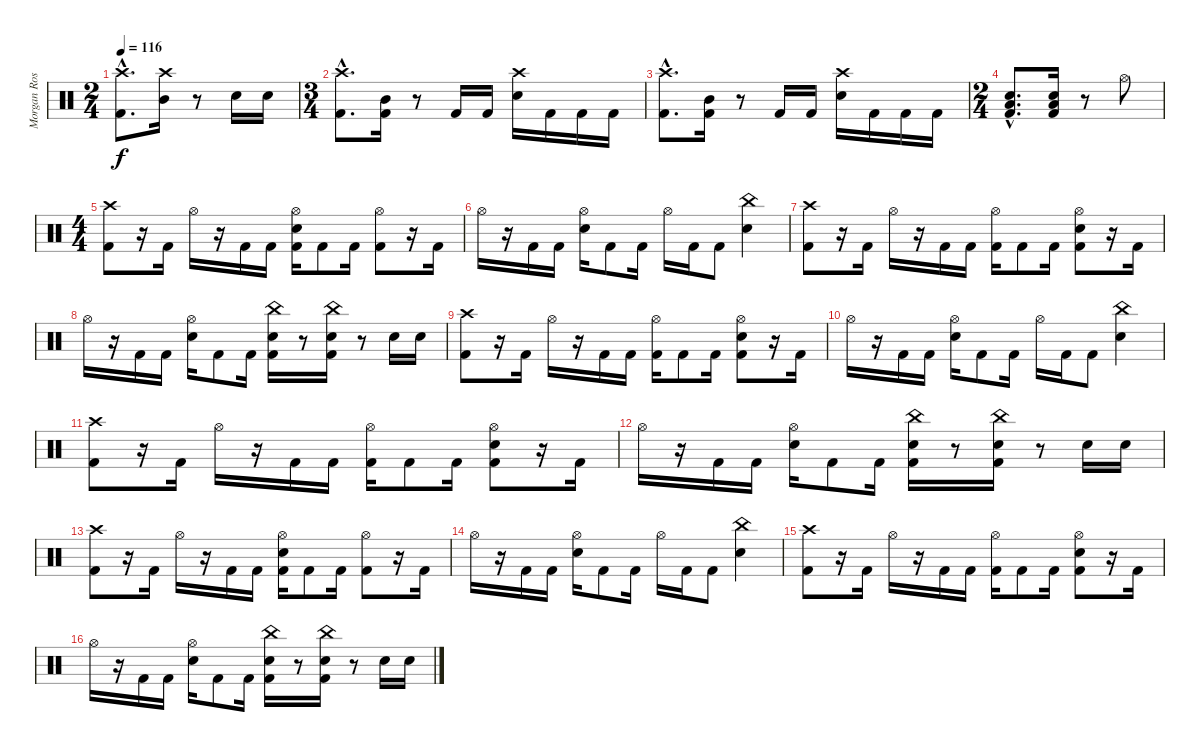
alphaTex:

\track ("Morgan Rose - Drums" "Morgan Ros") {instrument percussion}
\staff {score}
\articulation defaults
\ts (2 4)
\tempo 116
\clef neutral
\ks c
("Crash high (hit)"{hac} "Kick (hit) 2"{hac}).8{d dy f} ("Crash high (hit)" "Mid Tom (hit)").16 r.8 "Electric Snare (hit)".16 "Electric Snare (hit)".16 |
\ts (3 4)
("Crash high (hit)"{hac} "Kick (hit) 2"{hac}).8{d} ("Mid Tom (hit)" "Kick (hit) 2").16 r.8 "Kick (hit) 2".16 "Kick (hit) 2".16 ("Crash high (hit)" "Electric Snare (hit)").16 "Kick (hit) 2".16 "Kick (hit) 2".16 "Kick (hit) 2".16 |
("Crash high (hit)"{hac} "Kick (hit) 2"{hac}).8{d} ("Mid Tom (hit)" "Kick (hit) 2").16 r.8 "Kick (hit) 2".16 "Kick (hit) 2".16 ("Crash high (hit)" "Electric Snare (hit)").16 "Kick (hit) 2".16 "Kick (hit) 2".16 "Kick (hit) 2".16 |
\ts (2 4)
("Electric Snare (hit)"{hac} "Low Tom (hit)"{hac} "Kick (hit) 2"{hac}).8{d} ("Electric Snare (hit)" "Low Tom (hit)" "Kick (hit) 2").16 r.8 "Hi-Hat (open)".8 |
\ts (4 4)
("Crash high (hit)" "Kick (hit) 2").8 r.16 "Kick (hit) 2".16 "Hi-Hat (open)".16 r.16 "Kick (hit) 2".16 "Kick (hit) 2".16 ("Hi-Hat (open)" "Electric Snare (hit)" "Kick (hit) 2").16 "Kick (hit) 2".8 "Kick (hit) 2".16 ("Hi-Hat (open)" "Kick (hit) 2").8 r.16 "Kick (hit) 2".16 |
"Hi-Hat (open)".16 r.16 "Kick (hit) 2".16 "Kick (hit) 2".16 ("Hi-Hat (open)" "Electric Snare (hit)").16 "Kick (hit) 2".8 "Kick (hit) 2".16 "Hi-Hat (open)".16 "Kick (hit) 2".16 "Kick (hit) 2".8 ("China (hit)" "Electric Snare (hit)").4 |
("Crash high (hit)" "Kick (hit) 2").8 r.16 "Kick (hit) 2".16 "Hi-Hat (open)".16 r.16 "Kick (hit) 2".16 "Kick (hit) 2".16 ("Hi-Hat (open)" "Kick (hit) 2").16 "Kick (hit) 2".8 "Kick (hit) 2".16 ("Hi-Hat (open)" "Electric Snare (hit)" "Kick (hit) 2").8 r.16 "Kick (hit) 2".16 |
"Hi-Hat (open)".16 r.16 "Kick (hit) 2".16 "Kick (hit) 2".16 ("Hi-Hat (open)" "Electric Snare (hit)").16 "Kick (hit) 2".8 "Kick (hit) 2".16 ("China (hit)" "Electric Snare (hit)" "Kick (hit) 2").16 r.8 ("China (hit)" "Electric Snare (hit)" "Kick (hit) 2").16 r.8 "Electric Snare (hit)".16 "Electric Snare (hit)".16 |
("Crash high (hit)" "Kick (hit) 2").8 r.16 "Kick (hit) 2".16 "Hi-Hat (open)".16 r.16 "Kick (hit) 2".16 "Kick (hit) 2".16 ("Hi-Hat (open)" "Kick (hit) 2").16 "Kick (hit) 2".8 "Kick (hit) 2".16 ("Hi-Hat (open)" "Electric Snare (hit)" "Kick (hit) 2").8 r.16 "Kick (hit) 2".16 |
"Hi-Hat (open)".16 r.16 "Kick (hit) 2".16 "Kick (hit) 2".16 ("Hi-Hat (open)" "Electric Snare (hit)").16 "Kick (hit) 2".8 "Kick (hit) 2".16 "Hi-Hat (open)".16 "Kick (hit) 2".16 "Kick (hit) 2".8 ("China (hit)" "Electric Snare (hit)").4 |
("Crash high (hit)" "Kick (hit) 2").8 r.16 "Kick (hit) 2".16 "Hi-Hat (open)".16 r.16 "Kick (hit) 2".16 "Kick (hit) 2".16 ("Hi-Hat (open)" "Kick (hit) 2").16 "Kick (hit) 2".8 "Kick (hit) 2".16 ("Hi-Hat (open)" "Electric Snare (hit)" "Kick (hit) 2").8 r.16 "Kick (hit) 2".16 |
"Hi-Hat (open)".16 r.16 "Kick (hit) 2".16 "Kick (hit) 2".16 ("Hi-Hat (open)" "Electric Snare (hit)").16 "Kick (hit) 2".8 "Kick (hit) 2".16 ("China (hit)" "Electric Snare (hit)" "Kick (hit) 2").16 r.8 ("China (hit)" "Electric Snare (hit)" "Kick (hit) 2").16 r.8 "Electric Snare (hit)".16 "Electric Snare (hit)".16 |
("Crash high (hit)" "Kick (hit) 2").8 r.16 "Kick (hit) 2".16 "Hi-Hat (open)".16 r.16 "Kick (hit) 2".16 "Kick (hit) 2".16 ("Hi-Hat (open)" "Electric Snare (hit)" "Kick (hit) 2").16 "Kick (hit) 2".8 "Kick (hit) 2".16 ("Hi-Hat (open)" "Kick (hit) 2").8 r.16 "Kick (hit) 2".16 |
"Hi-Hat (open)".16 r.16 "Kick (hit) 2".16 "Kick (hit) 2".16 ("Hi-Hat (open)" "Electric Snare (hit)").16 "Kick (hit) 2".8 "Kick (hit) 2".16 "Hi-Hat (open)".16 "Kick (hit) 2".16 "Kick (hit) 2".8 ("China (hit)" "Electric Snare (hit)").4 |
("Crash high (hit)" "Kick (hit) 2").8 r.16 "Kick (hit) 2".16 "Hi-Hat (open)".16 r.16 "Kick (hit) 2".16 "Kick (hit) 2".16 ("Hi-Hat (open)" "Kick (hit) 2").16 "Kick (hit) 2".8 "Kick (hit) 2".16 ("Hi-Hat (open)" "Electric Snare (hit)" "Kick (hit) 2").8 r.16 "Kick (hit) 2".16 |
"Hi-Hat (open)".16 r.16 "Kick (hit) 2".16 "Kick (hit) 2".16 ("Hi-Hat (open)" "Electric Snare (hit)").16 "Kick (hit) 2".8 "Kick (hit) 2".16 ("China (hit)" "Electric Snare (hit)" "Kick (hit) 2").16 r.8 ("China (hit)" "Electric Snare (hit)" "Kick (hit) 2").16 r.8 "Electric Snare (hit)".16 "Electric Snare (hit)".16
